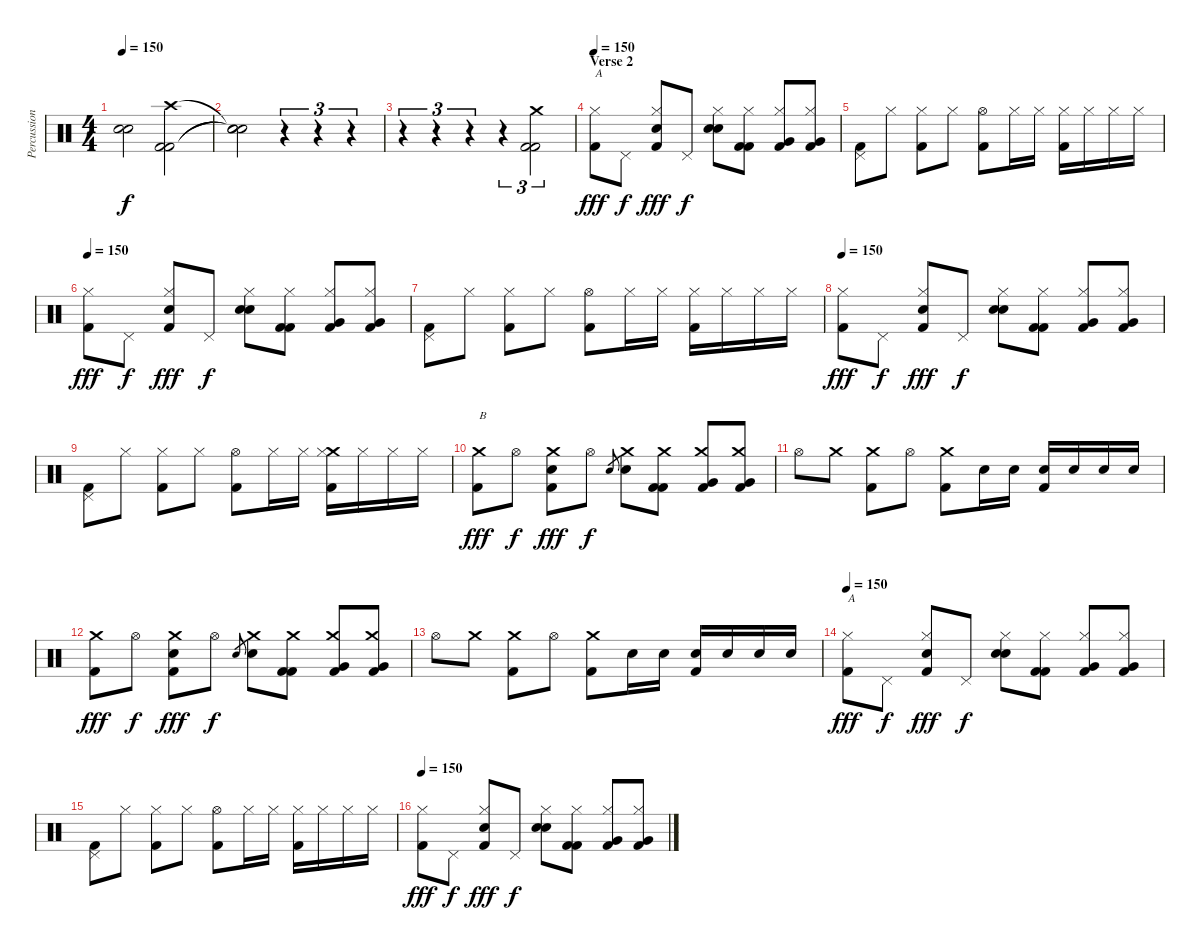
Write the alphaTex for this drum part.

\track ("Percussion" "Percussion") {instrument percussion}
\staff {score}
\articulation defaults
\ts (4 4)
\tempo 150
\clef neutral
\ks c
("Snare (hit)"{t} "Snare (hit)"{t}).2{dy f} ("Crash high (hit)" "Kick (hit) 2" "Kick (hit) 2").2 |
("Snare (hit)"{t} "Snare (hit)"{t} "Snare (hit)"{t}).2 r.4{tu (3 2)} r.4{tu (3 2)} r.4{tu (3 2)} |
r.4{tu (3 2)} r.4{tu (3 2)} r.4{tu (3 2)} r.4{tu (3 2)} ("Crash medium (hit)" "Kick (hit) 2" "Kick (hit) 2").2{tu (3 2)} |
\section ("" "Verse 2")
\tempo 150
("Hi-Hat (closed)" "Kick (hit) 2").8{txt "A" dy fff} "Pedal Hi-Hat (hit)".8{dy f} ("Hi-Hat (closed)" "Electric Snare (hit)" "Kick (hit) 2").8{dy fff} "Pedal Hi-Hat (hit)".8{dy f} ("Hi-Hat (closed)" "Electric Snare (hit)" "Electric Snare (hit)").8{bd 240} ("Hi-Hat (closed)" "Kick (hit) 2" "Kick (hit) 2").8 ("Hi-Hat (closed)" "Very Low Tom (hit)" "Kick (hit) 2").8 ("Hi-Hat (closed)" "Very Low Tom (hit)" "Kick (hit) 2").8 |
("Pedal Hi-Hat (hit)" "Kick (hit) 2").8 "Hi-Hat (closed)".8 ("Hi-Hat (closed)" "Kick (hit) 2").8 "Hi-Hat (closed)".8 ("Hi-Hat (open)" "Kick (hit) 2").8 "Hi-Hat (closed)".16 "Hi-Hat (closed)".16 ("Hi-Hat (closed)" "Kick (hit) 2").16 "Hi-Hat (closed)".16 "Hi-Hat (closed)".16 "Hi-Hat (closed)".16 |
\tempo 150
("Hi-Hat (closed)" "Kick (hit) 2").8{dy fff} "Pedal Hi-Hat (hit)".8{dy f} ("Hi-Hat (closed)" "Electric Snare (hit)" "Kick (hit) 2").8{dy fff} "Pedal Hi-Hat (hit)".8{dy f} ("Hi-Hat (closed)" "Electric Snare (hit)" "Electric Snare (hit)").8{bd 240} ("Hi-Hat (closed)" "Kick (hit) 2" "Kick (hit) 2").8 ("Hi-Hat (closed)" "Very Low Tom (hit)" "Kick (hit) 2").8 ("Hi-Hat (closed)" "Very Low Tom (hit)" "Kick (hit) 2").8 |
("Pedal Hi-Hat (hit)" "Kick (hit) 2").8 "Hi-Hat (closed)".8 ("Hi-Hat (closed)" "Kick (hit) 2").8 "Hi-Hat (closed)".8 ("Hi-Hat (open)" "Kick (hit) 2").8 "Hi-Hat (closed)".16 "Hi-Hat (closed)".16 ("Hi-Hat (closed)" "Kick (hit) 2").16 "Hi-Hat (closed)".16 "Hi-Hat (closed)".16 "Hi-Hat (closed)".16 |
\tempo 150
("Hi-Hat (closed)" "Kick (hit) 2").8{dy fff} "Pedal Hi-Hat (hit)".8{dy f} ("Hi-Hat (closed)" "Electric Snare (hit)" "Kick (hit) 2").8{dy fff} "Pedal Hi-Hat (hit)".8{dy f} ("Hi-Hat (closed)" "Electric Snare (hit)" "Electric Snare (hit)").8{bd 240} ("Hi-Hat (closed)" "Kick (hit) 2" "Kick (hit) 2").8 ("Hi-Hat (closed)" "Very Low Tom (hit)" "Kick (hit) 2").8 ("Hi-Hat (closed)" "Very Low Tom (hit)" "Kick (hit) 2").8 |
("Pedal Hi-Hat (hit)" "Kick (hit) 2").8 "Hi-Hat (closed)".8 ("Hi-Hat (closed)" "Kick (hit) 2").8 "Hi-Hat (closed)".8 ("Hi-Hat (open)" "Kick (hit) 2").8 "Hi-Hat (closed)".16 "Hi-Hat (closed)".16 ("Crash medium (hit)" "Hi-Hat (closed)" "Kick (hit) 2").16 "Hi-Hat (closed)".16 "Hi-Hat (closed)".16 "Hi-Hat (closed)".16 |
("Crash medium (hit)" "Kick (hit) 2").8{txt "B" dy fff} "Hi-Hat (open)".8{dy f} ("Crash medium (hit)" "Electric Snare (hit)" "Kick (hit) 2").8{dy fff} "Hi-Hat (open)".8{dy f} "Snare (hit) 2".8{gr} ("Crash medium (hit)" "Snare (hit) 2").8 ("Crash medium (hit)" "Kick (hit) 2" "Kick (hit) 2").8 ("Crash medium (hit)" "Very Low Tom (hit)" "Kick (hit) 2").8 ("Crash medium (hit)" "Very Low Tom (hit)" "Kick (hit) 2").8 |
"Hi-Hat (open)".8 "Crash medium (hit)".8 ("Crash medium (hit)" "Kick (hit) 2").8 "Hi-Hat (open)".8 ("Crash medium (hit)" "Kick (hit) 2").8 "Snare (hit) 2".16 "Snare (hit) 2".16 ("Snare (hit) 2" "Kick (hit) 2").16 "Snare (hit) 2".16 "Snare (hit) 2".16 "Snare (hit) 2".16 |
("Crash medium (hit)" "Kick (hit) 2").8{dy fff} "Hi-Hat (open)".8{dy f} ("Crash medium (hit)" "Electric Snare (hit)" "Kick (hit) 2").8{dy fff} "Hi-Hat (open)".8{dy f} "Snare (hit) 2".8{gr} ("Crash medium (hit)" "Snare (hit) 2").8 ("Crash medium (hit)" "Kick (hit) 2" "Kick (hit) 2").8 ("Crash medium (hit)" "Very Low Tom (hit)" "Kick (hit) 2").8 ("Crash medium (hit)" "Very Low Tom (hit)" "Kick (hit) 2").8 |
"Hi-Hat (open)".8 "Crash medium (hit)".8 ("Crash medium (hit)" "Kick (hit) 2").8 "Hi-Hat (open)".8 ("Crash medium (hit)" "Kick (hit) 2").8 "Snare (hit) 2".16 "Snare (hit) 2".16 ("Snare (hit) 2" "Kick (hit) 2").16 "Snare (hit) 2".16 "Snare (hit) 2".16 "Snare (hit) 2".16 |
\tempo 150
("Hi-Hat (closed)" "Kick (hit) 2").8{txt "A" dy fff} "Pedal Hi-Hat (hit)".8{dy f} ("Hi-Hat (closed)" "Electric Snare (hit)" "Kick (hit) 2").8{dy fff} "Pedal Hi-Hat (hit)".8{dy f} ("Hi-Hat (closed)" "Electric Snare (hit)" "Electric Snare (hit)").8{bd 240} ("Hi-Hat (closed)" "Kick (hit) 2" "Kick (hit) 2").8 ("Hi-Hat (closed)" "Very Low Tom (hit)" "Kick (hit) 2").8 ("Hi-Hat (closed)" "Very Low Tom (hit)" "Kick (hit) 2").8 |
("Pedal Hi-Hat (hit)" "Kick (hit) 2").8 "Hi-Hat (closed)".8 ("Hi-Hat (closed)" "Kick (hit) 2").8 "Hi-Hat (closed)".8 ("Hi-Hat (open)" "Kick (hit) 2").8 "Hi-Hat (closed)".16 "Hi-Hat (closed)".16 ("Hi-Hat (closed)" "Kick (hit) 2").16 "Hi-Hat (closed)".16 "Hi-Hat (closed)".16 "Hi-Hat (closed)".16 |
\tempo 150
("Hi-Hat (closed)" "Kick (hit) 2").8{dy fff} "Pedal Hi-Hat (hit)".8{dy f} ("Hi-Hat (closed)" "Electric Snare (hit)" "Kick (hit) 2").8{dy fff} "Pedal Hi-Hat (hit)".8{dy f} ("Hi-Hat (closed)" "Electric Snare (hit)" "Electric Snare (hit)").8{bd 240} ("Hi-Hat (closed)" "Kick (hit) 2" "Kick (hit) 2").8 ("Hi-Hat (closed)" "Very Low Tom (hit)" "Kick (hit) 2").8 ("Hi-Hat (closed)" "Very Low Tom (hit)" "Kick (hit) 2").8
